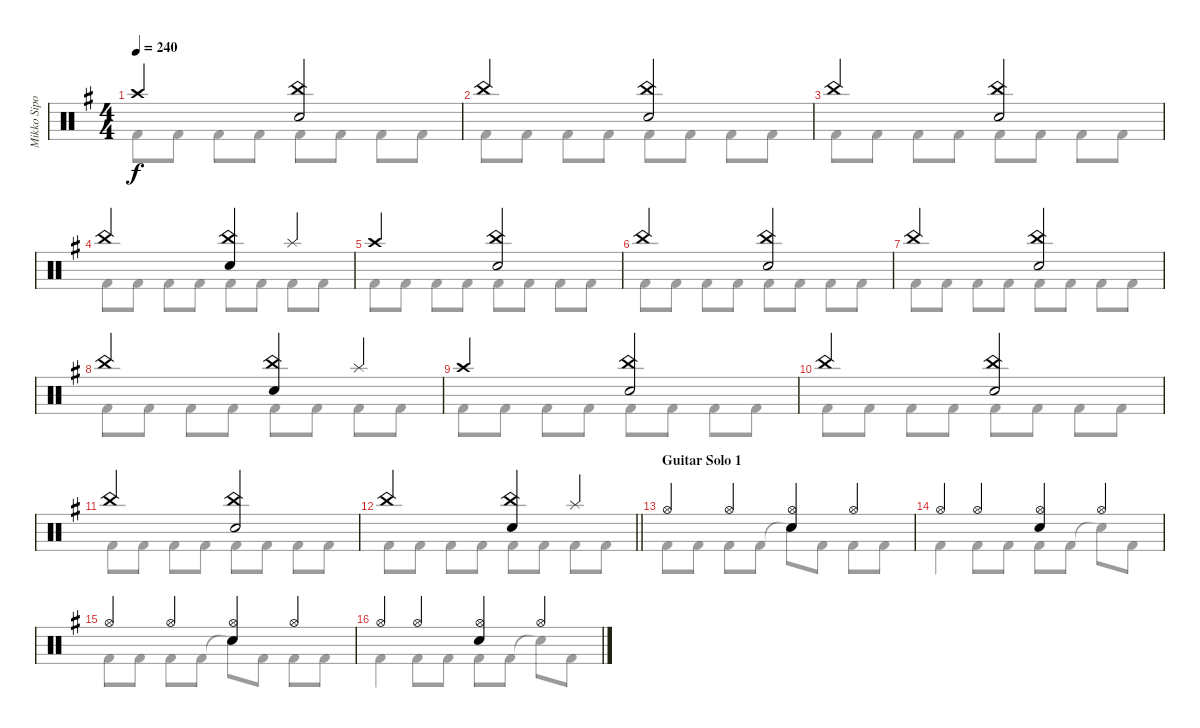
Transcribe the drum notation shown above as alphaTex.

\track ("Mikko Sipola (drums)" "Mikko Sipo") {instrument percussion}
\staff {score}
\articulation defaults
\voice
\ts (4 4)
\tempo 240
\clef neutral
\ks eminor "Crash high (hit)".2{dy f}
("Electric Snare (hit)" "China (hit)").2 |
"China (hit)".2 ("Electric Snare (hit)" "China (hit)").2 |
"China (hit)".2 ("Electric Snare (hit)" "China (hit)").2 |
"China (hit)".2 ("Electric Snare (hit)" "China (hit)").4 "Splash (hit)".4 |
"Crash high (hit)".2 ("Electric Snare (hit)" "China (hit)").2 |
"China (hit)".2 ("Electric Snare (hit)" "China (hit)").2 |
"China (hit)".2 ("Electric Snare (hit)" "China (hit)").2 |
"China (hit)".2 ("Electric Snare (hit)" "China (hit)").4 "Splash (hit)".4 |
"Crash high (hit)".2 ("Electric Snare (hit)" "China (hit)").2 |
"China (hit)".2 ("Electric Snare (hit)" "China (hit)").2 |
"China (hit)".2 ("Electric Snare (hit)" "China (hit)").2 |
\barLineRight lightlight "China (hit)".2
("Electric Snare (hit)" "China (hit)").4 "Splash (hit)".4 |
\section ("" "Guitar Solo 1")
"Hi-Hat (open)".4 "Hi-Hat (open)".4 ("Electric Snare (hit)" "Hi-Hat (open)").4 "Hi-Hat (open)".4 |
"Hi-Hat (open)".4 "Hi-Hat (open)".4 ("Electric Snare (hit)" "Hi-Hat (open)").4 "Hi-Hat (open)".4 |
"Hi-Hat (open)".4 "Hi-Hat (open)".4 ("Electric Snare (hit)" "Hi-Hat (open)").4 "Hi-Hat (open)".4 |
"Hi-Hat (open)".4 "Hi-Hat (open)".4 ("Electric Snare (hit)" "Hi-Hat (open)").4 "Hi-Hat (open)".4
\voice
\clef neutral
\ottava regular
\simile none
\ks eminor "Kick (hit) 2".8{dy f} "Kick (hit) 2".8 "Kick (hit) 2".8 "Kick (hit) 2".8 "Kick (hit) 2".8 "Kick (hit) 2".8 "Kick (hit) 2".8 "Kick (hit) 2".8
|
"Kick (hit) 2".8 "Kick (hit) 2".8 "Kick (hit) 2".8 "Kick (hit) 2".8 "Kick (hit) 2".8 "Kick (hit) 2".8 "Kick (hit) 2".8 "Kick (hit) 2".8 |
"Kick (hit) 2".8 "Kick (hit) 2".8 "Kick (hit) 2".8 "Kick (hit) 2".8 "Kick (hit) 2".8 "Kick (hit) 2".8 "Kick (hit) 2".8 "Kick (hit) 2".8 |
"Kick (hit) 2".8 "Kick (hit) 2".8 "Kick (hit) 2".8 "Kick (hit) 2".8 "Kick (hit) 2".8 "Kick (hit) 2".8 "Kick (hit) 2".8 "Kick (hit) 2".8 |
"Kick (hit) 2".8 "Kick (hit) 2".8 "Kick (hit) 2".8 "Kick (hit) 2".8 "Kick (hit) 2".8 "Kick (hit) 2".8 "Kick (hit) 2".8 "Kick (hit) 2".8 |
"Kick (hit) 2".8 "Kick (hit) 2".8 "Kick (hit) 2".8 "Kick (hit) 2".8 "Kick (hit) 2".8 "Kick (hit) 2".8 "Kick (hit) 2".8 "Kick (hit) 2".8 |
"Kick (hit) 2".8 "Kick (hit) 2".8 "Kick (hit) 2".8 "Kick (hit) 2".8 "Kick (hit) 2".8 "Kick (hit) 2".8 "Kick (hit) 2".8 "Kick (hit) 2".8 |
"Kick (hit) 2".8 "Kick (hit) 2".8 "Kick (hit) 2".8 "Kick (hit) 2".8 "Kick (hit) 2".8 "Kick (hit) 2".8 "Kick (hit) 2".8 "Kick (hit) 2".8 |
"Kick (hit) 2".8 "Kick (hit) 2".8 "Kick (hit) 2".8 "Kick (hit) 2".8 "Kick (hit) 2".8 "Kick (hit) 2".8 "Kick (hit) 2".8 "Kick (hit) 2".8 |
"Kick (hit) 2".8 "Kick (hit) 2".8 "Kick (hit) 2".8 "Kick (hit) 2".8 "Kick (hit) 2".8 "Kick (hit) 2".8 "Kick (hit) 2".8 "Kick (hit) 2".8 |
"Kick (hit) 2".8 "Kick (hit) 2".8 "Kick (hit) 2".8 "Kick (hit) 2".8 "Kick (hit) 2".8 "Kick (hit) 2".8 "Kick (hit) 2".8 "Kick (hit) 2".8 |
\barLineRight lightlight "Kick (hit) 2".8 "Kick (hit) 2".8 "Kick (hit) 2".8 "Kick (hit) 2".8 "Kick (hit) 2".8 "Kick (hit) 2".8 "Kick (hit) 2".8 "Kick (hit) 2".8
|
"Kick (hit) 2".8 "Kick (hit) 2".8 "Kick (hit) 2".8 "Kick (hit) 2".8 "Snare (hit)"{t}.8 "Kick (hit) 2".8 "Kick (hit) 2".8 "Kick (hit) 2".8 |
"Kick (hit) 2".4 "Kick (hit) 2".8 "Kick (hit) 2".8 "Kick (hit) 2".8 "Kick (hit) 2".8 "Snare (hit)"{t}.8 "Kick (hit) 2".8 |
"Kick (hit) 2".8 "Kick (hit) 2".8 "Kick (hit) 2".8 "Kick (hit) 2".8 "Snare (hit)"{t}.8 "Kick (hit) 2".8 "Kick (hit) 2".8 "Kick (hit) 2".8 |
"Kick (hit) 2".4 "Kick (hit) 2".8 "Kick (hit) 2".8 "Kick (hit) 2".8 "Kick (hit) 2".8 "Snare (hit)"{t}.8 "Kick (hit) 2".8
